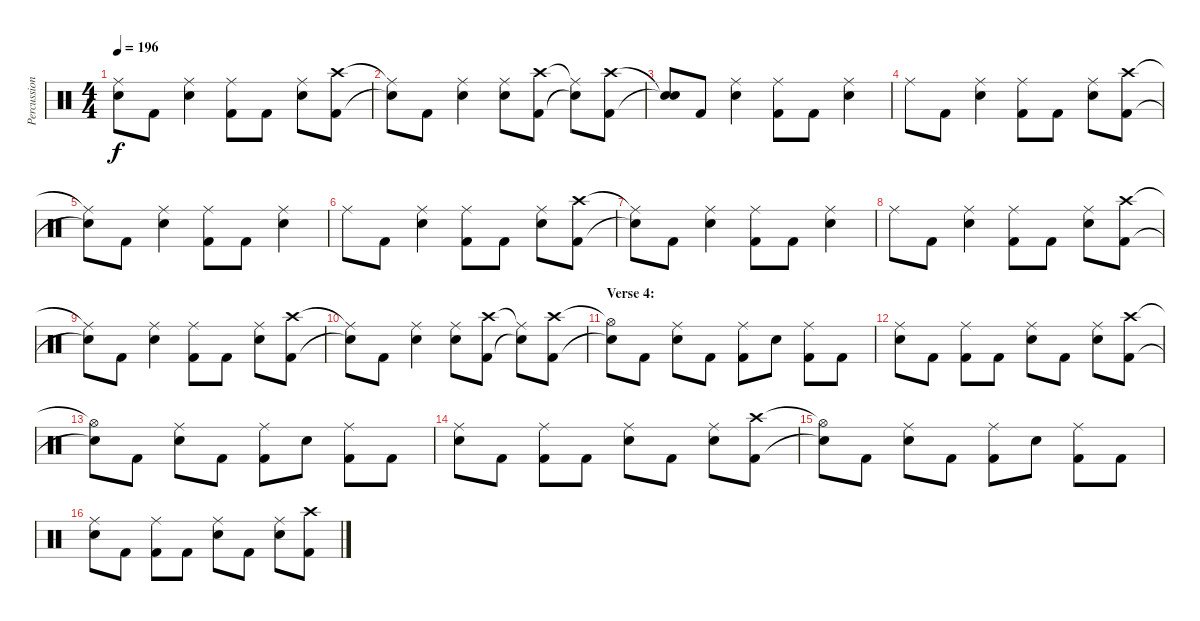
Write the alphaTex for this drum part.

\track ("Percussion" "Percussion") {instrument percussion}
\staff {score}
\articulation defaults
\ts (4 4)
\tempo 196
\clef neutral
\ks c
("Ride (middle)"{t} "Snare (hit)"{t}).8{dy f} "Kick (hit) 2".8 ("Ride (middle)" "Snare (hit) 2").4 ("Ride (middle)" "Kick (hit) 2").8 "Kick (hit) 2".8 ("Ride (middle)" "Snare (hit) 2").8 ("Crash high (hit)" "Kick (hit) 2").8 |
("Ride (middle)"{t} "Snare (hit)"{t}).8 "Kick (hit) 2".8 ("Ride (middle)" "Snare (hit) 2").4 ("Ride (middle)" "Snare (hit) 2").8 ("Crash high (hit)" "Kick (hit) 2").8 ("Ride (middle)"{t} "Snare (hit)"{t}).8 ("Crash high (hit)" "Kick (hit) 2").8 |
("Snare (hit)"{t} "Snare (hit)"{t}).8 "Kick (hit) 2".8 ("Ride (middle)" "Snare (hit) 2").4 ("Ride (middle)" "Kick (hit) 2").8 "Kick (hit) 2".8 ("Ride (middle)" "Snare (hit) 2").4 |
"Ride (middle)".8 "Kick (hit) 2".8 ("Ride (middle)" "Snare (hit) 2").4 ("Ride (middle)" "Kick (hit) 2").8 "Kick (hit) 2".8 ("Ride (middle)" "Snare (hit) 2").8 ("Crash high (hit)" "Kick (hit) 2").8 |
("Ride (middle)"{t} "Snare (hit)"{t}).8 "Kick (hit) 2".8 ("Ride (middle)" "Snare (hit) 2").4 ("Ride (middle)" "Kick (hit) 2").8 "Kick (hit) 2".8 ("Ride (middle)" "Snare (hit) 2").4 |
"Ride (middle)".8 "Kick (hit) 2".8 ("Ride (middle)" "Snare (hit) 2").4 ("Ride (middle)" "Kick (hit) 2").8 "Kick (hit) 2".8 ("Ride (middle)" "Snare (hit) 2").8 ("Crash high (hit)" "Kick (hit) 2").8 |
("Ride (middle)"{t} "Snare (hit)"{t}).8 "Kick (hit) 2".8 ("Ride (middle)" "Snare (hit) 2").4 ("Ride (middle)" "Kick (hit) 2").8 "Kick (hit) 2".8 ("Ride (middle)" "Snare (hit) 2").4 |
"Ride (middle)".8 "Kick (hit) 2".8 ("Ride (middle)" "Snare (hit) 2").4 ("Ride (middle)" "Kick (hit) 2").8 "Kick (hit) 2".8 ("Ride (middle)" "Snare (hit) 2").8 ("Crash high (hit)" "Kick (hit) 2").8 |
("Ride (middle)"{t} "Snare (hit)"{t}).8 "Kick (hit) 2".8 ("Ride (middle)" "Snare (hit) 2").4 ("Ride (middle)" "Kick (hit) 2").8 "Kick (hit) 2".8 ("Ride (middle)" "Snare (hit) 2").8 ("Crash high (hit)" "Kick (hit) 2").8 |
("Ride (middle)"{t} "Snare (hit)"{t}).8 "Kick (hit) 2".8 ("Ride (middle)" "Snare (hit) 2").4 ("Ride (middle)" "Snare (hit) 2").8 ("Crash high (hit)" "Kick (hit) 2").8 ("Ride (middle)"{t} "Snare (hit)"{t}).8 ("Crash high (hit)" "Kick (hit) 2").8 |
\section ("" "Verse 4:")
("Hi-Hat (open)"{t} "Snare (hit)"{t}).8 "Kick (hit) 2".8 ("Ride (middle)" "Snare (hit) 2").8 "Kick (hit) 2".8 ("Ride (middle)" "Kick (hit) 2").8 "Snare (hit) 2".8 ("Ride (middle)" "Kick (hit) 2").8 "Kick (hit) 2".8 |
("Ride (middle)" "Snare (hit) 2").8 "Kick (hit) 2".8 ("Ride (middle)" "Kick (hit) 2").8 "Kick (hit) 2".8 ("Ride (middle)" "Snare (hit) 2").8 "Kick (hit) 2".8 ("Ride (middle)" "Snare (hit) 2").8 ("Crash high (hit)" "Kick (hit) 2").8 |
("Hi-Hat (open)"{t} "Snare (hit)"{t}).8 "Kick (hit) 2".8 ("Ride (middle)" "Snare (hit) 2").8 "Kick (hit) 2".8 ("Ride (middle)" "Kick (hit) 2").8 "Snare (hit) 2".8 ("Ride (middle)" "Kick (hit) 2").8 "Kick (hit) 2".8 |
("Ride (middle)" "Snare (hit) 2").8 "Kick (hit) 2".8 ("Ride (middle)" "Kick (hit) 2").8 "Kick (hit) 2".8 ("Ride (middle)" "Snare (hit) 2").8 "Kick (hit) 2".8 ("Ride (middle)" "Snare (hit) 2").8 ("Crash high (hit)" "Kick (hit) 2").8 |
("Hi-Hat (open)"{t} "Snare (hit)"{t}).8 "Kick (hit) 2".8 ("Ride (middle)" "Snare (hit) 2").8 "Kick (hit) 2".8 ("Ride (middle)" "Kick (hit) 2").8 "Snare (hit) 2".8 ("Ride (middle)" "Kick (hit) 2").8 "Kick (hit) 2".8 |
("Ride (middle)" "Snare (hit) 2").8 "Kick (hit) 2".8 ("Ride (middle)" "Kick (hit) 2").8 "Kick (hit) 2".8 ("Ride (middle)" "Snare (hit) 2").8 "Kick (hit) 2".8 ("Ride (middle)" "Snare (hit) 2").8 ("Crash high (hit)" "Kick (hit) 2").8
